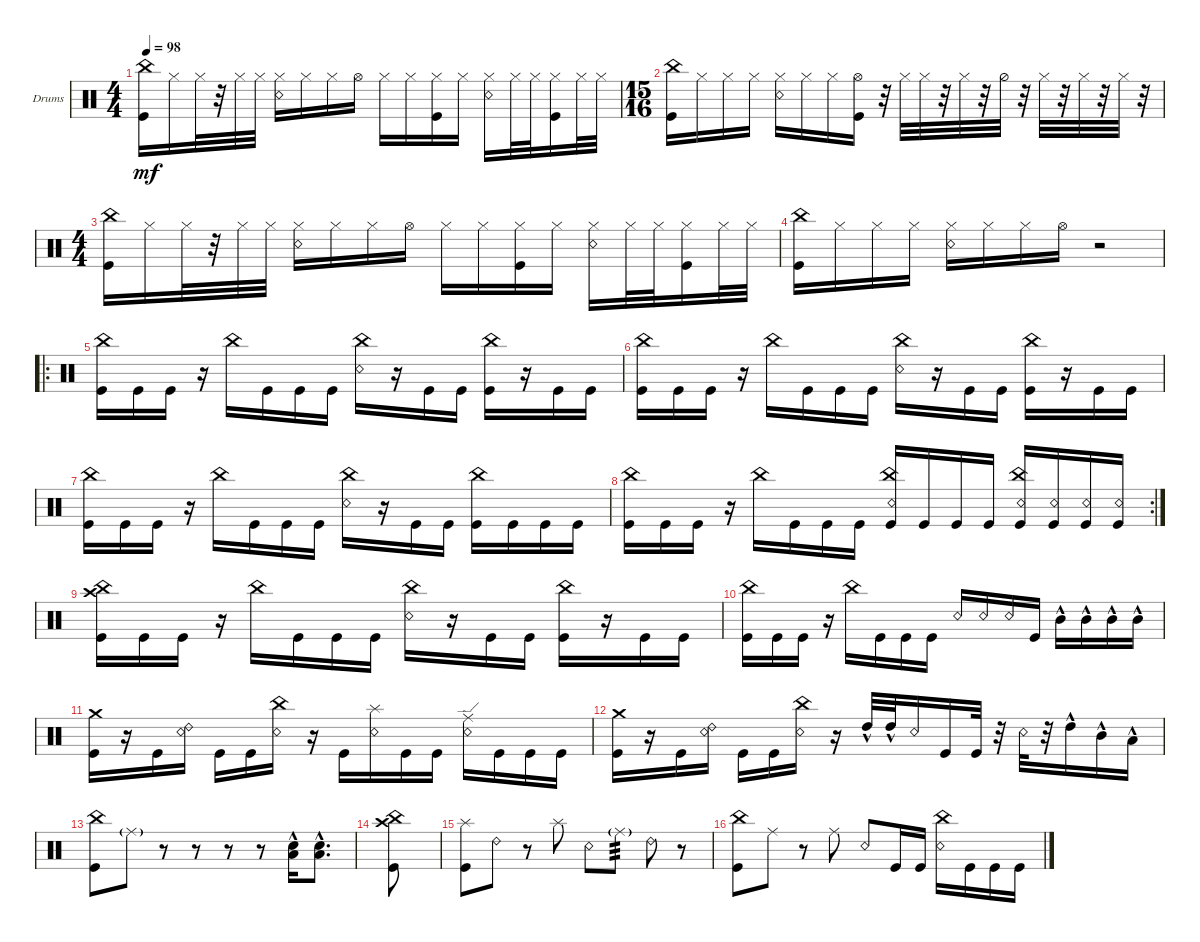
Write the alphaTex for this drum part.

\defaultSystemsLayout 4
\bracketExtendMode groupsimilarinstruments
\firstSystemTrackNameOrientation horizontal
\otherSystemsTrackNameOrientation horizontal
\track ("Drumkit" "Drums") {instrument percussion}
\staff {score}
\articulation defaults
\ts (4 4)
\tempo 98
\clef neutral
\scale
0.472222
\ks c
("Kick (hit)" "China (hit)").16{dy mf} "Hi-Hat (closed)".16 "Hi-Hat (closed)".32 r.32 "Hi-Hat (closed)".32 "Hi-Hat (closed)".32 ("Hi-Hat (closed)" "Snare (rim shot)").16 "Hi-Hat (closed)".16 "Hi-Hat (closed)".16 "Hi-Hat (open)".16 "Hi-Hat (closed)".16 "Hi-Hat (closed)".16 ("Hi-Hat (closed)" "Kick (hit)").16 "Hi-Hat (closed)".16 ("Hi-Hat (closed)" "Snare (rim shot)").16 "Hi-Hat (closed)".32 "Hi-Hat (closed)".32 ("Hi-Hat (closed)" "Kick (hit)").16 "Hi-Hat (closed)".32 "Hi-Hat (closed)".32 |
\ts (15 16)
\scale
0.263889 ("Kick (hit)" "China (hit)").16 "Hi-Hat (closed)".16 "Hi-Hat (closed)".16 "Hi-Hat (closed)".16 ("Hi-Hat (closed)" "Snare (rim shot)").16 "Hi-Hat (closed)".16 "Hi-Hat (closed)".16 ("Hi-Hat (open)" "Kick (hit)").16 r.32 "Hi-Hat (closed)".32 "Hi-Hat (closed)".32 r.32 "Hi-Hat (closed)".32 r.32 "Hi-Hat (half)".32 r.32 "Hi-Hat (closed)".32 r.32 "Hi-Hat (closed)".32 r.32 "Hi-Hat (closed)".32 r.32 |
\ts (4 4)
\scale
0.263889 ("Kick (hit)" "China (hit)").16 "Hi-Hat (closed)".16 "Hi-Hat (closed)".32 r.32 "Hi-Hat (closed)".32 "Hi-Hat (closed)".32 ("Hi-Hat (closed)" "Snare (rim shot)").16 "Hi-Hat (closed)".16 "Hi-Hat (closed)".16 "Hi-Hat (open)".16 "Hi-Hat (closed)".16 "Hi-Hat (closed)".16 ("Hi-Hat (closed)" "Kick (hit)").16 "Hi-Hat (closed)".16 ("Hi-Hat (closed)" "Snare (rim shot)").16 "Hi-Hat (closed)".32 "Hi-Hat (closed)".32 ("Hi-Hat (closed)" "Kick (hit)").16 "Hi-Hat (closed)".32 "Hi-Hat (closed)".32 |
\scale
0.333333 ("Kick (hit)" "China (hit)").16 "Hi-Hat (closed)".16 "Hi-Hat (closed)".16 "Hi-Hat (closed)".16 ("Hi-Hat (closed)" "Snare (rim shot)").16 "Hi-Hat (closed)".16 "Hi-Hat (closed)".16 "Hi-Hat (open)".16 r.2 |
\ro
\scale
0.333333 ("Kick (hit)" "China (hit)").16 "Kick (hit)".16 "Kick (hit)".16 r.16 "China (hit)".16 "Kick (hit)".16 "Kick (hit)".16 "Kick (hit)".16 ("Snare (rim shot)" "China (hit)").16 r.16 "Kick (hit)".16 "Kick (hit)".16 ("Kick (hit)" "China (hit)").16 r.16 "Kick (hit)".16 "Kick (hit)".16 |
\scale
0.333333 ("Kick (hit)" "China (hit)").16 "Kick (hit)".16 "Kick (hit)".16 r.16 "China (hit)".16 "Kick (hit)".16 "Kick (hit)".16 "Kick (hit)".16 ("Snare (rim shot)" "China (hit)").16 r.16 "Kick (hit)".16 "Kick (hit)".16 ("Kick (hit)" "China (hit)").16 r.16 "Kick (hit)".16 "Kick (hit)".16 |
\scale
0.333333 ("Kick (hit)" "China (hit)").16 "Kick (hit)".16 "Kick (hit)".16 r.16 "China (hit)".16 "Kick (hit)".16 "Kick (hit)".16 "Kick (hit)".16 ("Snare (rim shot)" "China (hit)").16 r.16 "Kick (hit)".16 "Kick (hit)".16 ("Kick (hit)" "China (hit)").16 "Kick (hit)".16 "Kick (hit)".16 "Kick (hit)".16 |
\rc 2
\scale
0.333333 ("Kick (hit)" "China (hit)").16 "Kick (hit)".16 "Kick (hit)".16 r.16 "China (hit)".16 "Kick (hit)".16 "Kick (hit)".16 "Kick (hit)".16 ("Snare (rim shot)" "China (hit)" "Kick (hit)").16 "Kick (hit)".16 "Kick (hit)".16 "Kick (hit)".16 ("Kick (hit)" "China (hit)" "Snare (rim shot)").16 ("Kick (hit)" "Snare (rim shot)").16 ("Kick (hit)" "Snare (rim shot)").16 ("Kick (hit)" "Snare (rim shot)").16 |
\scale
0.333333 ("Kick (hit)" "China (hit)" "Crash high (hit)").16 "Kick (hit)".16 "Kick (hit)".16 r.16 "China (hit)".16 "Kick (hit)".16 "Kick (hit)".16 "Kick (hit)".16 ("Snare (rim shot)" "China (hit)").16 r.16 "Kick (hit)".16 "Kick (hit)".16 ("Kick (hit)" "China (hit)").16 r.16 "Kick (hit)".16 "Kick (hit)".16 |
\scale
0.333333 ("Kick (hit)" "China (hit)").16 "Kick (hit)".16 "Kick (hit)".16 r.16 "China (hit)".16 "Kick (hit)".16 "Kick (hit)".16 "Kick (hit)".16 "Snare (rim shot)".16 "Snare (rim shot)".16 "Snare (rim shot)".16 "Kick (hit)".16 "Mid Tom (hit)"{hac}.16 "Mid Tom (hit)"{hac}.16 "Mid Tom (hit)"{hac}.16 "Mid Tom (hit)"{hac}.16 |
\scale
0.333333 ("Crash medium (hit)" "Kick (hit)").16 r.16 "Kick (hit)".16 ("Snare (rim shot)" "Ride (bell) 2").16 "Kick (hit)".16 "Kick (hit)".16 ("Snare (rim shot)" "China (hit)").16 r.16 "Kick (hit)".16 ("Snare (rim shot)" "Splash (hit)").16 "Kick (hit)".16 "Kick (hit)".16 ("Snare (rim shot)" "Ride (edge)").16 "Kick (hit)".16 "Kick (hit)".16 "Kick (hit)".16 |
\scale
0.333333 ("Crash medium (hit)" "Kick (hit)").16 r.16 "Kick (hit)".16 ("Snare (rim shot)" "Ride (bell) 2").16 "Kick (hit)".16 "Kick (hit)".16 ("Snare (rim shot)" "China (hit)").16 r.16 "High Tom (hit)"{hac}.32 "High Tom (hit)"{hac}.32 "Snare (rim shot)".16 "Kick (hit)".16 "Kick (hit)".32 r.32 "Snare (rim shot)".32 r.32 "High Tom (hit)"{hac}.16 "Mid Tom (hit)"{hac}.16 "Low Tom (hit)"{hac}.16 |
\scale
0.333333 ("Kick (hit)" "China (hit)").8 "Ride (middle)"{g}.8 r.8 r.8 r.8 r.8 ("Snare (hit) 2"{hac} "Low Tom (hit)"{hac}).16 ("Snare (hit) 2"{hac} "Low Tom (hit)"{hac}).8{d} |
\scale
0.333333 ("Kick (hit)" "China (hit)" "Crash high (hit)").8 |
\scale
0.333333 ("Kick (hit)" "Splash (hit)").8 "Ride (bell) 2".8 r.8 "Splash (hit)".8 "Snare (rim shot)".8 "Ride (middle)"{g}.8{tp 3} "Ride (bell) 2".8 r.8 |
\scale
0.333333 ("Kick (hit)" "China (hit)").8 "Ride (middle)".8 r.8 "Ride (middle)".8 "Snare (rim shot)".8 "Kick (hit)".16 "Kick (hit)".16 ("Snare (rim shot)" "China (hit)").16 "Kick (hit)".16 "Kick (hit)".16 "Kick (hit)".16
